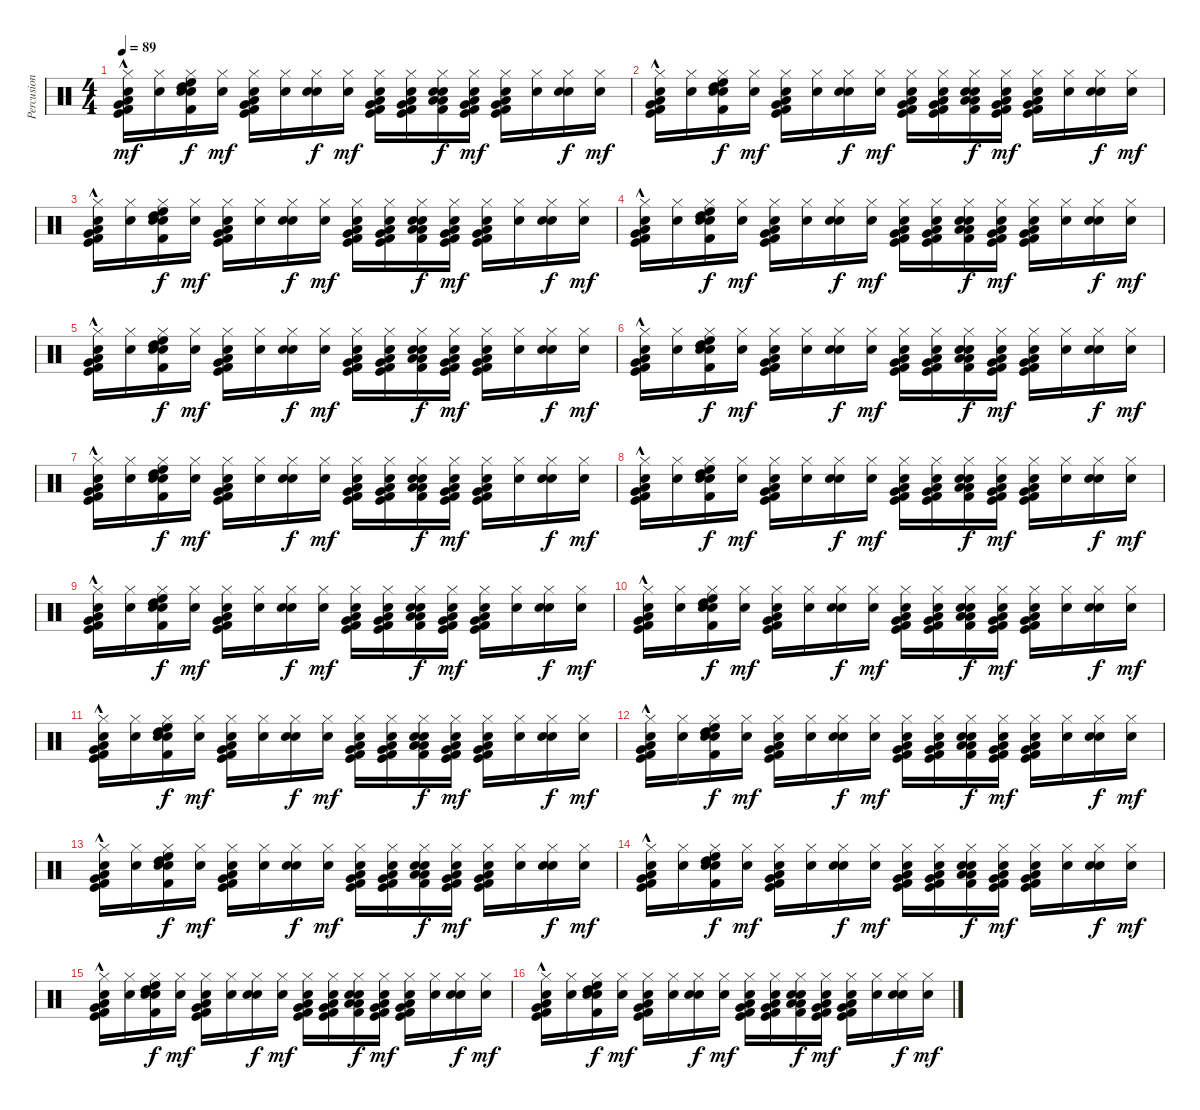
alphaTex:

\track ("Percusion" "Percusion") {instrument percussion}
\staff {score}
\articulation defaults
\ts (4 4)
\tempo 89
\clef neutral
\ks c
("Hi-Hat (closed)" "Very Low Tom (hit)" "Low Floor Tom (hit)" "Electric Snare (hit)" "Kick (hit) 2" "Kick (hit)"{hac}).16{dy mf} ("Hi-Hat (closed)" "Electric Snare (hit)").16 ("Hi-Hat (closed)" "High Floor Tom (hit)" "High Tom (hit)" "Electric Snare (hit)" "Snare (hit) 2" "Kick (hit) 2").16{dy f} ("Hi-Hat (closed)" "Electric Snare (hit)").16{dy mf} ("Hi-Hat (closed)" "Very Low Tom (hit)" "Low Floor Tom (hit)" "Electric Snare (hit)" "Kick (hit) 2" "Kick (hit)").16 ("Hi-Hat (closed)" "Electric Snare (hit)").16 ("Hi-Hat (closed)" "Electric Snare (hit)" "Snare (hit) 2").16{dy f} ("Hi-Hat (closed)" "Electric Snare (hit)").16{dy mf} ("Hi-Hat (closed)" "Very Low Tom (hit)" "Low Floor Tom (hit)" "Electric Snare (hit)" "Kick (hit) 2" "Kick (hit)").16 ("Hi-Hat (closed)" "Low Floor Tom (hit)" "Very Low Tom (hit)" "Electric Snare (hit)" "Kick (hit) 2" "Kick (hit)").16 ("Low Tom (hit)" "Low Floor Tom (hit)" "Hi-Hat (closed)" "Electric Snare (hit)" "Snare (hit) 2" "Kick (hit) 2").16{dy f} ("Hi-Hat (closed)" "Very Low Tom (hit)" "Low Floor Tom (hit)" "Electric Snare (hit)" "Kick (hit) 2" "Kick (hit)").16{dy mf} ("Hi-Hat (closed)" "Very Low Tom (hit)" "Low Floor Tom (hit)" "Electric Snare (hit)" "Kick (hit) 2" "Kick (hit)").16 ("Hi-Hat (closed)" "Electric Snare (hit)").16 ("Hi-Hat (closed)" "Electric Snare (hit)" "Snare (hit) 2").16{dy f} ("Hi-Hat (closed)" "Electric Snare (hit)").16{dy mf} |
("Hi-Hat (closed)" "Very Low Tom (hit)" "Low Floor Tom (hit)" "Electric Snare (hit)" "Kick (hit) 2" "Kick (hit)"{hac}).16 ("Hi-Hat (closed)" "Electric Snare (hit)").16 ("Hi-Hat (closed)" "High Floor Tom (hit)" "High Tom (hit)" "Electric Snare (hit)" "Snare (hit) 2" "Kick (hit) 2").16{dy f} ("Hi-Hat (closed)" "Electric Snare (hit)").16{dy mf} ("Hi-Hat (closed)" "Very Low Tom (hit)" "Low Floor Tom (hit)" "Electric Snare (hit)" "Kick (hit) 2" "Kick (hit)").16 ("Hi-Hat (closed)" "Electric Snare (hit)").16 ("Hi-Hat (closed)" "Electric Snare (hit)" "Snare (hit) 2").16{dy f} ("Hi-Hat (closed)" "Electric Snare (hit)").16{dy mf} ("Hi-Hat (closed)" "Very Low Tom (hit)" "Low Floor Tom (hit)" "Electric Snare (hit)" "Kick (hit) 2" "Kick (hit)").16 ("Hi-Hat (closed)" "Low Floor Tom (hit)" "Very Low Tom (hit)" "Electric Snare (hit)" "Kick (hit) 2" "Kick (hit)").16 ("Low Tom (hit)" "Low Floor Tom (hit)" "Hi-Hat (closed)" "Electric Snare (hit)" "Snare (hit) 2" "Kick (hit) 2").16{dy f} ("Hi-Hat (closed)" "Very Low Tom (hit)" "Low Floor Tom (hit)" "Electric Snare (hit)" "Kick (hit) 2" "Kick (hit)").16{dy mf} ("Hi-Hat (closed)" "Very Low Tom (hit)" "Low Floor Tom (hit)" "Electric Snare (hit)" "Kick (hit) 2" "Kick (hit)").16 ("Hi-Hat (closed)" "Electric Snare (hit)").16 ("Hi-Hat (closed)" "Electric Snare (hit)" "Snare (hit) 2").16{dy f} ("Hi-Hat (closed)" "Electric Snare (hit)").16{dy mf} |
("Hi-Hat (closed)" "Very Low Tom (hit)" "Low Floor Tom (hit)" "Electric Snare (hit)" "Kick (hit) 2" "Kick (hit)"{hac}).16 ("Hi-Hat (closed)" "Electric Snare (hit)").16 ("Hi-Hat (closed)" "High Floor Tom (hit)" "High Tom (hit)" "Electric Snare (hit)" "Snare (hit) 2" "Kick (hit) 2").16{dy f} ("Hi-Hat (closed)" "Electric Snare (hit)").16{dy mf} ("Hi-Hat (closed)" "Very Low Tom (hit)" "Low Floor Tom (hit)" "Electric Snare (hit)" "Kick (hit) 2" "Kick (hit)").16 ("Hi-Hat (closed)" "Electric Snare (hit)").16 ("Hi-Hat (closed)" "Electric Snare (hit)" "Snare (hit) 2").16{dy f} ("Hi-Hat (closed)" "Electric Snare (hit)").16{dy mf} ("Hi-Hat (closed)" "Very Low Tom (hit)" "Low Floor Tom (hit)" "Electric Snare (hit)" "Kick (hit) 2" "Kick (hit)").16 ("Hi-Hat (closed)" "Low Floor Tom (hit)" "Very Low Tom (hit)" "Electric Snare (hit)" "Kick (hit) 2" "Kick (hit)").16 ("Low Tom (hit)" "Low Floor Tom (hit)" "Hi-Hat (closed)" "Electric Snare (hit)" "Snare (hit) 2" "Kick (hit) 2").16{dy f} ("Hi-Hat (closed)" "Very Low Tom (hit)" "Low Floor Tom (hit)" "Electric Snare (hit)" "Kick (hit) 2" "Kick (hit)").16{dy mf} ("Hi-Hat (closed)" "Very Low Tom (hit)" "Low Floor Tom (hit)" "Electric Snare (hit)" "Kick (hit) 2" "Kick (hit)").16 ("Hi-Hat (closed)" "Electric Snare (hit)").16 ("Hi-Hat (closed)" "Electric Snare (hit)" "Snare (hit) 2").16{dy f} ("Hi-Hat (closed)" "Electric Snare (hit)").16{dy mf} |
("Hi-Hat (closed)" "Very Low Tom (hit)" "Low Floor Tom (hit)" "Electric Snare (hit)" "Kick (hit) 2" "Kick (hit)"{hac}).16 ("Hi-Hat (closed)" "Electric Snare (hit)").16 ("Hi-Hat (closed)" "High Floor Tom (hit)" "High Tom (hit)" "Electric Snare (hit)" "Snare (hit) 2" "Kick (hit) 2").16{dy f} ("Hi-Hat (closed)" "Electric Snare (hit)").16{dy mf} ("Hi-Hat (closed)" "Very Low Tom (hit)" "Low Floor Tom (hit)" "Electric Snare (hit)" "Kick (hit) 2" "Kick (hit)").16 ("Hi-Hat (closed)" "Electric Snare (hit)").16 ("Hi-Hat (closed)" "Electric Snare (hit)" "Snare (hit) 2").16{dy f} ("Hi-Hat (closed)" "Electric Snare (hit)").16{dy mf} ("Hi-Hat (closed)" "Very Low Tom (hit)" "Low Floor Tom (hit)" "Electric Snare (hit)" "Kick (hit) 2" "Kick (hit)").16 ("Hi-Hat (closed)" "Low Floor Tom (hit)" "Very Low Tom (hit)" "Electric Snare (hit)" "Kick (hit) 2" "Kick (hit)").16 ("Low Tom (hit)" "Low Floor Tom (hit)" "Hi-Hat (closed)" "Electric Snare (hit)" "Snare (hit) 2" "Kick (hit) 2").16{dy f} ("Hi-Hat (closed)" "Very Low Tom (hit)" "Low Floor Tom (hit)" "Electric Snare (hit)" "Kick (hit) 2" "Kick (hit)").16{dy mf} ("Hi-Hat (closed)" "Very Low Tom (hit)" "Low Floor Tom (hit)" "Electric Snare (hit)" "Kick (hit) 2" "Kick (hit)").16 ("Hi-Hat (closed)" "Electric Snare (hit)").16 ("Hi-Hat (closed)" "Electric Snare (hit)" "Snare (hit) 2").16{dy f} ("Hi-Hat (closed)" "Electric Snare (hit)").16{dy mf} |
("Hi-Hat (closed)" "Very Low Tom (hit)" "Low Floor Tom (hit)" "Electric Snare (hit)" "Kick (hit) 2" "Kick (hit)"{hac}).16 ("Hi-Hat (closed)" "Electric Snare (hit)").16 ("Hi-Hat (closed)" "High Floor Tom (hit)" "High Tom (hit)" "Electric Snare (hit)" "Snare (hit) 2" "Kick (hit) 2").16{dy f} ("Hi-Hat (closed)" "Electric Snare (hit)").16{dy mf} ("Hi-Hat (closed)" "Very Low Tom (hit)" "Low Floor Tom (hit)" "Electric Snare (hit)" "Kick (hit) 2" "Kick (hit)").16 ("Hi-Hat (closed)" "Electric Snare (hit)").16 ("Hi-Hat (closed)" "Electric Snare (hit)" "Snare (hit) 2").16{dy f} ("Hi-Hat (closed)" "Electric Snare (hit)").16{dy mf} ("Hi-Hat (closed)" "Very Low Tom (hit)" "Low Floor Tom (hit)" "Electric Snare (hit)" "Kick (hit) 2" "Kick (hit)").16 ("Hi-Hat (closed)" "Low Floor Tom (hit)" "Very Low Tom (hit)" "Electric Snare (hit)" "Kick (hit) 2" "Kick (hit)").16 ("Low Tom (hit)" "Low Floor Tom (hit)" "Hi-Hat (closed)" "Electric Snare (hit)" "Snare (hit) 2" "Kick (hit) 2").16{dy f} ("Hi-Hat (closed)" "Very Low Tom (hit)" "Low Floor Tom (hit)" "Electric Snare (hit)" "Kick (hit) 2" "Kick (hit)").16{dy mf} ("Hi-Hat (closed)" "Very Low Tom (hit)" "Low Floor Tom (hit)" "Electric Snare (hit)" "Kick (hit) 2" "Kick (hit)").16 ("Hi-Hat (closed)" "Electric Snare (hit)").16 ("Hi-Hat (closed)" "Electric Snare (hit)" "Snare (hit) 2").16{dy f} ("Hi-Hat (closed)" "Electric Snare (hit)").16{dy mf} |
("Hi-Hat (closed)" "Very Low Tom (hit)" "Low Floor Tom (hit)" "Electric Snare (hit)" "Kick (hit) 2" "Kick (hit)"{hac}).16 ("Hi-Hat (closed)" "Electric Snare (hit)").16 ("Hi-Hat (closed)" "High Floor Tom (hit)" "High Tom (hit)" "Electric Snare (hit)" "Snare (hit) 2" "Kick (hit) 2").16{dy f} ("Hi-Hat (closed)" "Electric Snare (hit)").16{dy mf} ("Hi-Hat (closed)" "Very Low Tom (hit)" "Low Floor Tom (hit)" "Electric Snare (hit)" "Kick (hit) 2" "Kick (hit)").16 ("Hi-Hat (closed)" "Electric Snare (hit)").16 ("Hi-Hat (closed)" "Electric Snare (hit)" "Snare (hit) 2").16{dy f} ("Hi-Hat (closed)" "Electric Snare (hit)").16{dy mf} ("Hi-Hat (closed)" "Very Low Tom (hit)" "Low Floor Tom (hit)" "Electric Snare (hit)" "Kick (hit) 2" "Kick (hit)").16 ("Hi-Hat (closed)" "Low Floor Tom (hit)" "Very Low Tom (hit)" "Electric Snare (hit)" "Kick (hit) 2" "Kick (hit)").16 ("Low Tom (hit)" "Low Floor Tom (hit)" "Hi-Hat (closed)" "Electric Snare (hit)" "Snare (hit) 2" "Kick (hit) 2").16{dy f} ("Hi-Hat (closed)" "Very Low Tom (hit)" "Low Floor Tom (hit)" "Electric Snare (hit)" "Kick (hit) 2" "Kick (hit)").16{dy mf} ("Hi-Hat (closed)" "Very Low Tom (hit)" "Low Floor Tom (hit)" "Electric Snare (hit)" "Kick (hit) 2" "Kick (hit)").16 ("Hi-Hat (closed)" "Electric Snare (hit)").16 ("Hi-Hat (closed)" "Electric Snare (hit)" "Snare (hit) 2").16{dy f} ("Hi-Hat (closed)" "Electric Snare (hit)").16{dy mf} |
("Hi-Hat (closed)" "Very Low Tom (hit)" "Low Floor Tom (hit)" "Electric Snare (hit)" "Kick (hit) 2" "Kick (hit)"{hac}).16 ("Hi-Hat (closed)" "Electric Snare (hit)").16 ("Hi-Hat (closed)" "High Floor Tom (hit)" "High Tom (hit)" "Electric Snare (hit)" "Snare (hit) 2" "Kick (hit) 2").16{dy f} ("Hi-Hat (closed)" "Electric Snare (hit)").16{dy mf} ("Hi-Hat (closed)" "Very Low Tom (hit)" "Low Floor Tom (hit)" "Electric Snare (hit)" "Kick (hit) 2" "Kick (hit)").16 ("Hi-Hat (closed)" "Electric Snare (hit)").16 ("Hi-Hat (closed)" "Electric Snare (hit)" "Snare (hit) 2").16{dy f} ("Hi-Hat (closed)" "Electric Snare (hit)").16{dy mf} ("Hi-Hat (closed)" "Very Low Tom (hit)" "Low Floor Tom (hit)" "Electric Snare (hit)" "Kick (hit) 2" "Kick (hit)").16 ("Hi-Hat (closed)" "Low Floor Tom (hit)" "Very Low Tom (hit)" "Electric Snare (hit)" "Kick (hit) 2" "Kick (hit)").16 ("Low Tom (hit)" "Low Floor Tom (hit)" "Hi-Hat (closed)" "Electric Snare (hit)" "Snare (hit) 2" "Kick (hit) 2").16{dy f} ("Hi-Hat (closed)" "Very Low Tom (hit)" "Low Floor Tom (hit)" "Electric Snare (hit)" "Kick (hit) 2" "Kick (hit)").16{dy mf} ("Hi-Hat (closed)" "Very Low Tom (hit)" "Low Floor Tom (hit)" "Electric Snare (hit)" "Kick (hit) 2" "Kick (hit)").16 ("Hi-Hat (closed)" "Electric Snare (hit)").16 ("Hi-Hat (closed)" "Electric Snare (hit)" "Snare (hit) 2").16{dy f} ("Hi-Hat (closed)" "Electric Snare (hit)").16{dy mf} |
("Hi-Hat (closed)" "Very Low Tom (hit)" "Low Floor Tom (hit)" "Electric Snare (hit)" "Kick (hit) 2" "Kick (hit)"{hac}).16 ("Hi-Hat (closed)" "Electric Snare (hit)").16 ("Hi-Hat (closed)" "High Floor Tom (hit)" "High Tom (hit)" "Electric Snare (hit)" "Snare (hit) 2" "Kick (hit) 2").16{dy f} ("Hi-Hat (closed)" "Electric Snare (hit)").16{dy mf} ("Hi-Hat (closed)" "Very Low Tom (hit)" "Low Floor Tom (hit)" "Electric Snare (hit)" "Kick (hit) 2" "Kick (hit)").16 ("Hi-Hat (closed)" "Electric Snare (hit)").16 ("Hi-Hat (closed)" "Electric Snare (hit)" "Snare (hit) 2").16{dy f} ("Hi-Hat (closed)" "Electric Snare (hit)").16{dy mf} ("Hi-Hat (closed)" "Very Low Tom (hit)" "Low Floor Tom (hit)" "Electric Snare (hit)" "Kick (hit) 2" "Kick (hit)").16 ("Hi-Hat (closed)" "Low Floor Tom (hit)" "Very Low Tom (hit)" "Electric Snare (hit)" "Kick (hit) 2" "Kick (hit)").16 ("Low Tom (hit)" "Low Floor Tom (hit)" "Hi-Hat (closed)" "Electric Snare (hit)" "Snare (hit) 2" "Kick (hit) 2").16{dy f} ("Hi-Hat (closed)" "Very Low Tom (hit)" "Low Floor Tom (hit)" "Electric Snare (hit)" "Kick (hit) 2" "Kick (hit)").16{dy mf} ("Hi-Hat (closed)" "Very Low Tom (hit)" "Low Floor Tom (hit)" "Electric Snare (hit)" "Kick (hit) 2" "Kick (hit)").16 ("Hi-Hat (closed)" "Electric Snare (hit)").16 ("Hi-Hat (closed)" "Electric Snare (hit)" "Snare (hit) 2").16{dy f} ("Hi-Hat (closed)" "Electric Snare (hit)").16{dy mf} |
("Hi-Hat (closed)" "Very Low Tom (hit)" "Low Floor Tom (hit)" "Electric Snare (hit)" "Kick (hit) 2" "Kick (hit)"{hac}).16 ("Hi-Hat (closed)" "Electric Snare (hit)").16 ("Hi-Hat (closed)" "High Floor Tom (hit)" "High Tom (hit)" "Electric Snare (hit)" "Snare (hit) 2" "Kick (hit) 2").16{dy f} ("Hi-Hat (closed)" "Electric Snare (hit)").16{dy mf} ("Hi-Hat (closed)" "Very Low Tom (hit)" "Low Floor Tom (hit)" "Electric Snare (hit)" "Kick (hit) 2" "Kick (hit)").16 ("Hi-Hat (closed)" "Electric Snare (hit)").16 ("Hi-Hat (closed)" "Electric Snare (hit)" "Snare (hit) 2").16{dy f} ("Hi-Hat (closed)" "Electric Snare (hit)").16{dy mf} ("Hi-Hat (closed)" "Very Low Tom (hit)" "Low Floor Tom (hit)" "Electric Snare (hit)" "Kick (hit) 2" "Kick (hit)").16 ("Hi-Hat (closed)" "Low Floor Tom (hit)" "Very Low Tom (hit)" "Electric Snare (hit)" "Kick (hit) 2" "Kick (hit)").16 ("Low Tom (hit)" "Low Floor Tom (hit)" "Hi-Hat (closed)" "Electric Snare (hit)" "Snare (hit) 2" "Kick (hit) 2").16{dy f} ("Hi-Hat (closed)" "Very Low Tom (hit)" "Low Floor Tom (hit)" "Electric Snare (hit)" "Kick (hit) 2" "Kick (hit)").16{dy mf} ("Hi-Hat (closed)" "Very Low Tom (hit)" "Low Floor Tom (hit)" "Electric Snare (hit)" "Kick (hit) 2" "Kick (hit)").16 ("Hi-Hat (closed)" "Electric Snare (hit)").16 ("Hi-Hat (closed)" "Electric Snare (hit)" "Snare (hit) 2").16{dy f} ("Hi-Hat (closed)" "Electric Snare (hit)").16{dy mf} |
("Hi-Hat (closed)" "Very Low Tom (hit)" "Low Floor Tom (hit)" "Electric Snare (hit)" "Kick (hit) 2" "Kick (hit)"{hac}).16 ("Hi-Hat (closed)" "Electric Snare (hit)").16 ("Hi-Hat (closed)" "High Floor Tom (hit)" "High Tom (hit)" "Electric Snare (hit)" "Snare (hit) 2" "Kick (hit) 2").16{dy f} ("Hi-Hat (closed)" "Electric Snare (hit)").16{dy mf} ("Hi-Hat (closed)" "Very Low Tom (hit)" "Low Floor Tom (hit)" "Electric Snare (hit)" "Kick (hit) 2" "Kick (hit)").16 ("Hi-Hat (closed)" "Electric Snare (hit)").16 ("Hi-Hat (closed)" "Electric Snare (hit)" "Snare (hit) 2").16{dy f} ("Hi-Hat (closed)" "Electric Snare (hit)").16{dy mf} ("Hi-Hat (closed)" "Very Low Tom (hit)" "Low Floor Tom (hit)" "Electric Snare (hit)" "Kick (hit) 2" "Kick (hit)").16 ("Hi-Hat (closed)" "Low Floor Tom (hit)" "Very Low Tom (hit)" "Electric Snare (hit)" "Kick (hit) 2" "Kick (hit)").16 ("Low Tom (hit)" "Low Floor Tom (hit)" "Hi-Hat (closed)" "Electric Snare (hit)" "Snare (hit) 2" "Kick (hit) 2").16{dy f} ("Hi-Hat (closed)" "Very Low Tom (hit)" "Low Floor Tom (hit)" "Electric Snare (hit)" "Kick (hit) 2" "Kick (hit)").16{dy mf} ("Hi-Hat (closed)" "Very Low Tom (hit)" "Low Floor Tom (hit)" "Electric Snare (hit)" "Kick (hit) 2" "Kick (hit)").16 ("Hi-Hat (closed)" "Electric Snare (hit)").16 ("Hi-Hat (closed)" "Electric Snare (hit)" "Snare (hit) 2").16{dy f} ("Hi-Hat (closed)" "Electric Snare (hit)").16{dy mf} |
("Hi-Hat (closed)" "Very Low Tom (hit)" "Low Floor Tom (hit)" "Electric Snare (hit)" "Kick (hit) 2" "Kick (hit)"{hac}).16 ("Hi-Hat (closed)" "Electric Snare (hit)").16 ("Hi-Hat (closed)" "High Floor Tom (hit)" "High Tom (hit)" "Electric Snare (hit)" "Snare (hit) 2" "Kick (hit) 2").16{dy f} ("Hi-Hat (closed)" "Electric Snare (hit)").16{dy mf} ("Hi-Hat (closed)" "Very Low Tom (hit)" "Low Floor Tom (hit)" "Electric Snare (hit)" "Kick (hit) 2" "Kick (hit)").16 ("Hi-Hat (closed)" "Electric Snare (hit)").16 ("Hi-Hat (closed)" "Electric Snare (hit)" "Snare (hit) 2").16{dy f} ("Hi-Hat (closed)" "Electric Snare (hit)").16{dy mf} ("Hi-Hat (closed)" "Very Low Tom (hit)" "Low Floor Tom (hit)" "Electric Snare (hit)" "Kick (hit) 2" "Kick (hit)").16 ("Hi-Hat (closed)" "Low Floor Tom (hit)" "Very Low Tom (hit)" "Electric Snare (hit)" "Kick (hit) 2" "Kick (hit)").16 ("Low Tom (hit)" "Low Floor Tom (hit)" "Hi-Hat (closed)" "Electric Snare (hit)" "Snare (hit) 2" "Kick (hit) 2").16{dy f} ("Hi-Hat (closed)" "Very Low Tom (hit)" "Low Floor Tom (hit)" "Electric Snare (hit)" "Kick (hit) 2" "Kick (hit)").16{dy mf} ("Hi-Hat (closed)" "Very Low Tom (hit)" "Low Floor Tom (hit)" "Electric Snare (hit)" "Kick (hit) 2" "Kick (hit)").16 ("Hi-Hat (closed)" "Electric Snare (hit)").16 ("Hi-Hat (closed)" "Electric Snare (hit)" "Snare (hit) 2").16{dy f} ("Hi-Hat (closed)" "Electric Snare (hit)").16{dy mf} |
("Hi-Hat (closed)" "Very Low Tom (hit)" "Low Floor Tom (hit)" "Electric Snare (hit)" "Kick (hit) 2" "Kick (hit)"{hac}).16 ("Hi-Hat (closed)" "Electric Snare (hit)").16 ("Hi-Hat (closed)" "High Floor Tom (hit)" "High Tom (hit)" "Electric Snare (hit)" "Snare (hit) 2" "Kick (hit) 2").16{dy f} ("Hi-Hat (closed)" "Electric Snare (hit)").16{dy mf} ("Hi-Hat (closed)" "Very Low Tom (hit)" "Low Floor Tom (hit)" "Electric Snare (hit)" "Kick (hit) 2" "Kick (hit)").16 ("Hi-Hat (closed)" "Electric Snare (hit)").16 ("Hi-Hat (closed)" "Electric Snare (hit)" "Snare (hit) 2").16{dy f} ("Hi-Hat (closed)" "Electric Snare (hit)").16{dy mf} ("Hi-Hat (closed)" "Very Low Tom (hit)" "Low Floor Tom (hit)" "Electric Snare (hit)" "Kick (hit) 2" "Kick (hit)").16 ("Hi-Hat (closed)" "Low Floor Tom (hit)" "Very Low Tom (hit)" "Electric Snare (hit)" "Kick (hit) 2" "Kick (hit)").16 ("Low Tom (hit)" "Low Floor Tom (hit)" "Hi-Hat (closed)" "Electric Snare (hit)" "Snare (hit) 2" "Kick (hit) 2").16{dy f} ("Hi-Hat (closed)" "Very Low Tom (hit)" "Low Floor Tom (hit)" "Electric Snare (hit)" "Kick (hit) 2" "Kick (hit)").16{dy mf} ("Hi-Hat (closed)" "Very Low Tom (hit)" "Low Floor Tom (hit)" "Electric Snare (hit)" "Kick (hit) 2" "Kick (hit)").16 ("Hi-Hat (closed)" "Electric Snare (hit)").16 ("Hi-Hat (closed)" "Electric Snare (hit)" "Snare (hit) 2").16{dy f} ("Hi-Hat (closed)" "Electric Snare (hit)").16{dy mf} |
("Hi-Hat (closed)" "Very Low Tom (hit)" "Low Floor Tom (hit)" "Electric Snare (hit)" "Kick (hit) 2" "Kick (hit)"{hac}).16 ("Hi-Hat (closed)" "Electric Snare (hit)").16 ("Hi-Hat (closed)" "High Floor Tom (hit)" "High Tom (hit)" "Electric Snare (hit)" "Snare (hit) 2" "Kick (hit) 2").16{dy f} ("Hi-Hat (closed)" "Electric Snare (hit)").16{dy mf} ("Hi-Hat (closed)" "Very Low Tom (hit)" "Low Floor Tom (hit)" "Electric Snare (hit)" "Kick (hit) 2" "Kick (hit)").16 ("Hi-Hat (closed)" "Electric Snare (hit)").16 ("Hi-Hat (closed)" "Electric Snare (hit)" "Snare (hit) 2").16{dy f} ("Hi-Hat (closed)" "Electric Snare (hit)").16{dy mf} ("Hi-Hat (closed)" "Very Low Tom (hit)" "Low Floor Tom (hit)" "Electric Snare (hit)" "Kick (hit) 2" "Kick (hit)").16 ("Hi-Hat (closed)" "Low Floor Tom (hit)" "Very Low Tom (hit)" "Electric Snare (hit)" "Kick (hit) 2" "Kick (hit)").16 ("Low Tom (hit)" "Low Floor Tom (hit)" "Hi-Hat (closed)" "Electric Snare (hit)" "Snare (hit) 2" "Kick (hit) 2").16{dy f} ("Hi-Hat (closed)" "Very Low Tom (hit)" "Low Floor Tom (hit)" "Electric Snare (hit)" "Kick (hit) 2" "Kick (hit)").16{dy mf} ("Hi-Hat (closed)" "Very Low Tom (hit)" "Low Floor Tom (hit)" "Electric Snare (hit)" "Kick (hit) 2" "Kick (hit)").16 ("Hi-Hat (closed)" "Electric Snare (hit)").16 ("Hi-Hat (closed)" "Electric Snare (hit)" "Snare (hit) 2").16{dy f} ("Hi-Hat (closed)" "Electric Snare (hit)").16{dy mf} |
("Hi-Hat (closed)" "Very Low Tom (hit)" "Low Floor Tom (hit)" "Electric Snare (hit)" "Kick (hit) 2" "Kick (hit)"{hac}).16 ("Hi-Hat (closed)" "Electric Snare (hit)").16 ("Hi-Hat (closed)" "High Floor Tom (hit)" "High Tom (hit)" "Electric Snare (hit)" "Snare (hit) 2" "Kick (hit) 2").16{dy f} ("Hi-Hat (closed)" "Electric Snare (hit)").16{dy mf} ("Hi-Hat (closed)" "Very Low Tom (hit)" "Low Floor Tom (hit)" "Electric Snare (hit)" "Kick (hit) 2" "Kick (hit)").16 ("Hi-Hat (closed)" "Electric Snare (hit)").16 ("Hi-Hat (closed)" "Electric Snare (hit)" "Snare (hit) 2").16{dy f} ("Hi-Hat (closed)" "Electric Snare (hit)").16{dy mf} ("Hi-Hat (closed)" "Very Low Tom (hit)" "Low Floor Tom (hit)" "Electric Snare (hit)" "Kick (hit) 2" "Kick (hit)").16 ("Hi-Hat (closed)" "Low Floor Tom (hit)" "Very Low Tom (hit)" "Electric Snare (hit)" "Kick (hit) 2" "Kick (hit)").16 ("Low Tom (hit)" "Low Floor Tom (hit)" "Hi-Hat (closed)" "Electric Snare (hit)" "Snare (hit) 2" "Kick (hit) 2").16{dy f} ("Hi-Hat (closed)" "Very Low Tom (hit)" "Low Floor Tom (hit)" "Electric Snare (hit)" "Kick (hit) 2" "Kick (hit)").16{dy mf} ("Hi-Hat (closed)" "Very Low Tom (hit)" "Low Floor Tom (hit)" "Electric Snare (hit)" "Kick (hit) 2" "Kick (hit)").16 ("Hi-Hat (closed)" "Electric Snare (hit)").16 ("Hi-Hat (closed)" "Electric Snare (hit)" "Snare (hit) 2").16{dy f} ("Hi-Hat (closed)" "Electric Snare (hit)").16{dy mf} |
("Hi-Hat (closed)" "Very Low Tom (hit)" "Low Floor Tom (hit)" "Electric Snare (hit)" "Kick (hit) 2" "Kick (hit)"{hac}).16 ("Hi-Hat (closed)" "Electric Snare (hit)").16 ("Hi-Hat (closed)" "High Floor Tom (hit)" "High Tom (hit)" "Electric Snare (hit)" "Snare (hit) 2" "Kick (hit) 2").16{dy f} ("Hi-Hat (closed)" "Electric Snare (hit)").16{dy mf} ("Hi-Hat (closed)" "Very Low Tom (hit)" "Low Floor Tom (hit)" "Electric Snare (hit)" "Kick (hit) 2" "Kick (hit)").16 ("Hi-Hat (closed)" "Electric Snare (hit)").16 ("Hi-Hat (closed)" "Electric Snare (hit)" "Snare (hit) 2").16{dy f} ("Hi-Hat (closed)" "Electric Snare (hit)").16{dy mf} ("Hi-Hat (closed)" "Very Low Tom (hit)" "Low Floor Tom (hit)" "Electric Snare (hit)" "Kick (hit) 2" "Kick (hit)").16 ("Hi-Hat (closed)" "Low Floor Tom (hit)" "Very Low Tom (hit)" "Electric Snare (hit)" "Kick (hit) 2" "Kick (hit)").16 ("Low Tom (hit)" "Low Floor Tom (hit)" "Hi-Hat (closed)" "Electric Snare (hit)" "Snare (hit) 2" "Kick (hit) 2").16{dy f} ("Hi-Hat (closed)" "Very Low Tom (hit)" "Low Floor Tom (hit)" "Electric Snare (hit)" "Kick (hit) 2" "Kick (hit)").16{dy mf} ("Hi-Hat (closed)" "Very Low Tom (hit)" "Low Floor Tom (hit)" "Electric Snare (hit)" "Kick (hit) 2" "Kick (hit)").16 ("Hi-Hat (closed)" "Electric Snare (hit)").16 ("Hi-Hat (closed)" "Electric Snare (hit)" "Snare (hit) 2").16{dy f} ("Hi-Hat (closed)" "Electric Snare (hit)").16{dy mf} |
("Hi-Hat (closed)" "Very Low Tom (hit)" "Low Floor Tom (hit)" "Electric Snare (hit)" "Kick (hit) 2" "Kick (hit)"{hac}).16 ("Hi-Hat (closed)" "Electric Snare (hit)").16 ("Hi-Hat (closed)" "High Floor Tom (hit)" "High Tom (hit)" "Electric Snare (hit)" "Snare (hit) 2" "Kick (hit) 2").16{dy f} ("Hi-Hat (closed)" "Electric Snare (hit)").16{dy mf} ("Hi-Hat (closed)" "Very Low Tom (hit)" "Low Floor Tom (hit)" "Electric Snare (hit)" "Kick (hit) 2" "Kick (hit)").16 ("Hi-Hat (closed)" "Electric Snare (hit)").16 ("Hi-Hat (closed)" "Electric Snare (hit)" "Snare (hit) 2").16{dy f} ("Hi-Hat (closed)" "Electric Snare (hit)").16{dy mf} ("Hi-Hat (closed)" "Very Low Tom (hit)" "Low Floor Tom (hit)" "Electric Snare (hit)" "Kick (hit) 2" "Kick (hit)").16 ("Hi-Hat (closed)" "Low Floor Tom (hit)" "Very Low Tom (hit)" "Electric Snare (hit)" "Kick (hit) 2" "Kick (hit)").16 ("Low Tom (hit)" "Low Floor Tom (hit)" "Hi-Hat (closed)" "Electric Snare (hit)" "Snare (hit) 2" "Kick (hit) 2").16{dy f} ("Hi-Hat (closed)" "Very Low Tom (hit)" "Low Floor Tom (hit)" "Electric Snare (hit)" "Kick (hit) 2" "Kick (hit)").16{dy mf} ("Hi-Hat (closed)" "Very Low Tom (hit)" "Low Floor Tom (hit)" "Electric Snare (hit)" "Kick (hit) 2" "Kick (hit)").16 ("Hi-Hat (closed)" "Electric Snare (hit)").16 ("Hi-Hat (closed)" "Electric Snare (hit)" "Snare (hit) 2").16{dy f} ("Hi-Hat (closed)" "Electric Snare (hit)").16{dy mf}
